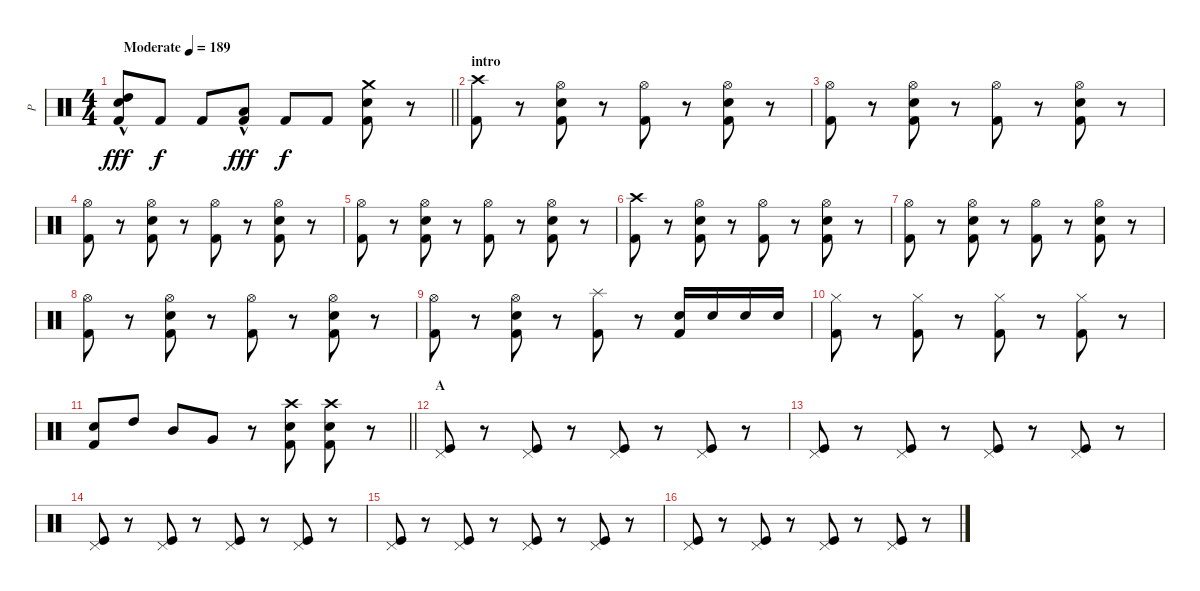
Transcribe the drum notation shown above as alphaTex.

\track ("P" "P") {instrument percussion}
\staff {score}
\articulation defaults
\ts (4 4)
\tempo (189 "Moderate")
\clef neutral
\barLineRight lightlight
\ks c
("High Tom (hit)"{hac} "Electric Snare (hit)" "Kick (hit) 2").8{dy fff} "Kick (hit) 2".8{dy f} "Kick (hit) 2".8 ("Low Tom (hit)"{hac} "Kick (hit) 2").8{dy fff} "Kick (hit) 2".8{dy f} "Kick (hit) 2".8 ("Crash medium (hit)" "Electric Snare (hit)" "Kick (hit) 2").8 r.8 |
\section ("" "intro")
("Crash high (hit)" "Kick (hit) 2").8 r.8 ("Hi-Hat (open)" "Electric Snare (hit)" "Kick (hit) 2").8 r.8 ("Hi-Hat (open)" "Kick (hit) 2").8 r.8 ("Hi-Hat (open)" "Electric Snare (hit)" "Kick (hit) 2").8 r.8 |
("Hi-Hat (open)" "Kick (hit) 2").8 r.8 ("Hi-Hat (open)" "Electric Snare (hit)" "Kick (hit) 2").8 r.8 ("Hi-Hat (open)" "Kick (hit) 2").8 r.8 ("Hi-Hat (open)" "Electric Snare (hit)" "Kick (hit) 2").8 r.8 |
("Hi-Hat (open)" "Kick (hit) 2").8 r.8 ("Hi-Hat (open)" "Electric Snare (hit)" "Kick (hit) 2").8 r.8 ("Hi-Hat (open)" "Kick (hit) 2").8 r.8 ("Hi-Hat (open)" "Electric Snare (hit)" "Kick (hit) 2").8 r.8 |
("Hi-Hat (open)" "Kick (hit) 2").8 r.8 ("Hi-Hat (open)" "Electric Snare (hit)" "Kick (hit) 2").8 r.8 ("Hi-Hat (open)" "Kick (hit) 2").8 r.8 ("Hi-Hat (open)" "Electric Snare (hit)" "Kick (hit) 2").8 r.8 |
("Crash high (hit)" "Kick (hit) 2").8 r.8 ("Hi-Hat (open)" "Electric Snare (hit)" "Kick (hit) 2").8 r.8 ("Hi-Hat (open)" "Kick (hit) 2").8 r.8 ("Hi-Hat (open)" "Electric Snare (hit)" "Kick (hit) 2").8 r.8 |
("Hi-Hat (open)" "Kick (hit) 2").8 r.8 ("Hi-Hat (open)" "Electric Snare (hit)" "Kick (hit) 2").8 r.8 ("Hi-Hat (open)" "Kick (hit) 2").8 r.8 ("Hi-Hat (open)" "Electric Snare (hit)" "Kick (hit) 2").8 r.8 |
("Hi-Hat (open)" "Kick (hit) 2").8 r.8 ("Hi-Hat (open)" "Electric Snare (hit)" "Kick (hit) 2").8 r.8 ("Hi-Hat (open)" "Kick (hit) 2").8 r.8 ("Hi-Hat (open)" "Electric Snare (hit)" "Kick (hit) 2").8 r.8 |
("Hi-Hat (open)" "Kick (hit) 2").8 r.8 ("Hi-Hat (open)" "Electric Snare (hit)" "Kick (hit) 2").8 r.8 ("Splash (hit)" "Kick (hit) 2").8 r.8 ("Electric Snare (hit)" "Kick (hit) 2").16 "Electric Snare (hit)".16 "Electric Snare (hit)".16 "Electric Snare (hit)".16 |
("Hi-Hat (closed)" "Kick (hit) 2").8 r.8 ("Hi-Hat (closed)" "Kick (hit) 2").8 r.8 ("Hi-Hat (closed)" "Kick (hit) 2").8 r.8 ("Hi-Hat (closed)" "Kick (hit) 2").8 r.8 |
\barLineRight lightlight
("Electric Snare (hit)" "Kick (hit) 2").8 "High Tom (hit)".8 "Mid Tom (hit)".8 "Very Low Tom (hit)".8 r.8 ("Crash high (hit)" "Electric Snare (hit)" "Kick (hit) 2").8 ("Crash high (hit)" "Electric Snare (hit)" "Kick (hit) 2").8 r.8 |
\section ("" "A")
("Pedal Hi-Hat (hit)" "Kick (hit)").8 r.8 ("Pedal Hi-Hat (hit)" "Kick (hit)").8 r.8 ("Pedal Hi-Hat (hit)" "Kick (hit)").8 r.8 ("Pedal Hi-Hat (hit)" "Kick (hit)").8 r.8 |
("Pedal Hi-Hat (hit)" "Kick (hit)").8 r.8 ("Pedal Hi-Hat (hit)" "Kick (hit)").8 r.8 ("Pedal Hi-Hat (hit)" "Kick (hit)").8 r.8 ("Pedal Hi-Hat (hit)" "Kick (hit)").8 r.8 |
("Pedal Hi-Hat (hit)" "Kick (hit)").8 r.8 ("Pedal Hi-Hat (hit)" "Kick (hit)").8 r.8 ("Pedal Hi-Hat (hit)" "Kick (hit)").8 r.8 ("Pedal Hi-Hat (hit)" "Kick (hit)").8 r.8 |
("Pedal Hi-Hat (hit)" "Kick (hit)").8 r.8 ("Pedal Hi-Hat (hit)" "Kick (hit)").8 r.8 ("Pedal Hi-Hat (hit)" "Kick (hit)").8 r.8 ("Pedal Hi-Hat (hit)" "Kick (hit)").8 r.8 |
("Pedal Hi-Hat (hit)" "Kick (hit)").8 r.8 ("Pedal Hi-Hat (hit)" "Kick (hit)").8 r.8 ("Pedal Hi-Hat (hit)" "Kick (hit)").8 r.8 ("Pedal Hi-Hat (hit)" "Kick (hit)").8 r.8
